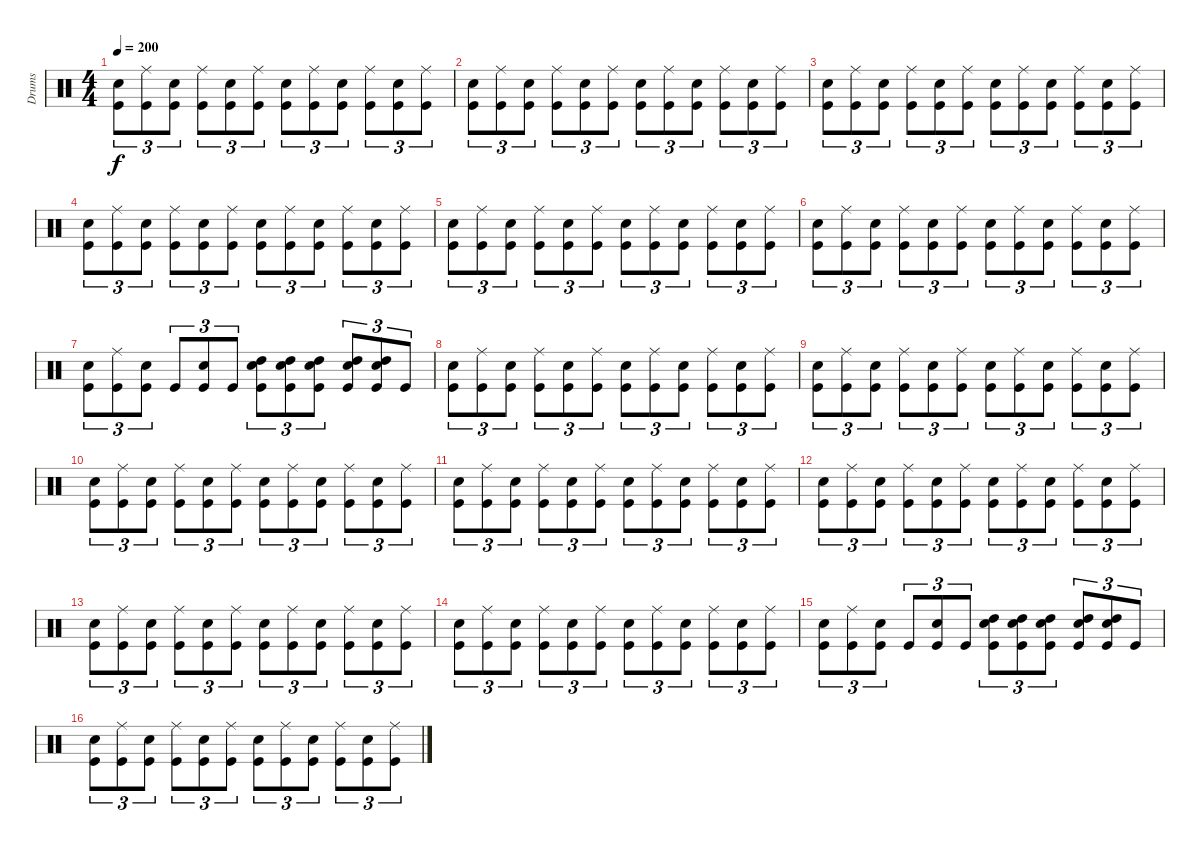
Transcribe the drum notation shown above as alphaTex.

\track ("Drums" "Drums") {instrument percussion}
\staff {score}
\articulation defaults
\ts (4 4)
\tempo 200
\clef neutral
\ks c
("Electric Snare (hit)" "Kick (hit)").8{tu (3 2) dy f} ("Ride (middle)" "Kick (hit)").8{tu (3 2)} ("Electric Snare (hit)" "Kick (hit)").8{tu (3 2)} ("Ride (middle)" "Kick (hit)").8{tu (3 2)} ("Electric Snare (hit)" "Kick (hit)").8{tu (3 2)} ("Ride (middle)" "Kick (hit)").8{tu (3 2)} ("Electric Snare (hit)" "Kick (hit)").8{tu (3 2)} ("Ride (middle)" "Kick (hit)").8{tu (3 2)} ("Electric Snare (hit)" "Kick (hit)").8{tu (3 2)} ("Ride (middle)" "Kick (hit)").8{tu (3 2)} ("Electric Snare (hit)" "Kick (hit)").8{tu (3 2)} ("Ride (middle)" "Kick (hit)").8{tu (3 2)} |
("Electric Snare (hit)" "Kick (hit)").8{tu (3 2)} ("Ride (middle)" "Kick (hit)").8{tu (3 2)} ("Electric Snare (hit)" "Kick (hit)").8{tu (3 2)} ("Ride (middle)" "Kick (hit)").8{tu (3 2)} ("Electric Snare (hit)" "Kick (hit)").8{tu (3 2)} ("Ride (middle)" "Kick (hit)").8{tu (3 2)} ("Electric Snare (hit)" "Kick (hit)").8{tu (3 2)} ("Ride (middle)" "Kick (hit)").8{tu (3 2)} ("Electric Snare (hit)" "Kick (hit)").8{tu (3 2)} ("Ride (middle)" "Kick (hit)").8{tu (3 2)} ("Electric Snare (hit)" "Kick (hit)").8{tu (3 2)} ("Ride (middle)" "Kick (hit)").8{tu (3 2)} |
("Electric Snare (hit)" "Kick (hit)").8{tu (3 2)} ("Ride (middle)" "Kick (hit)").8{tu (3 2)} ("Electric Snare (hit)" "Kick (hit)").8{tu (3 2)} ("Ride (middle)" "Kick (hit)").8{tu (3 2)} ("Electric Snare (hit)" "Kick (hit)").8{tu (3 2)} ("Ride (middle)" "Kick (hit)").8{tu (3 2)} ("Electric Snare (hit)" "Kick (hit)").8{tu (3 2)} ("Ride (middle)" "Kick (hit)").8{tu (3 2)} ("Electric Snare (hit)" "Kick (hit)").8{tu (3 2)} ("Ride (middle)" "Kick (hit)").8{tu (3 2)} ("Electric Snare (hit)" "Kick (hit)").8{tu (3 2)} ("Ride (middle)" "Kick (hit)").8{tu (3 2)} |
("Electric Snare (hit)" "Kick (hit)").8{tu (3 2)} ("Ride (middle)" "Kick (hit)").8{tu (3 2)} ("Electric Snare (hit)" "Kick (hit)").8{tu (3 2)} ("Ride (middle)" "Kick (hit)").8{tu (3 2)} ("Electric Snare (hit)" "Kick (hit)").8{tu (3 2)} ("Ride (middle)" "Kick (hit)").8{tu (3 2)} ("Electric Snare (hit)" "Kick (hit)").8{tu (3 2)} ("Ride (middle)" "Kick (hit)").8{tu (3 2)} ("Electric Snare (hit)" "Kick (hit)").8{tu (3 2)} ("Ride (middle)" "Kick (hit)").8{tu (3 2)} ("Electric Snare (hit)" "Kick (hit)").8{tu (3 2)} ("Ride (middle)" "Kick (hit)").8{tu (3 2)} |
("Electric Snare (hit)" "Kick (hit)").8{tu (3 2)} ("Ride (middle)" "Kick (hit)").8{tu (3 2)} ("Electric Snare (hit)" "Kick (hit)").8{tu (3 2)} ("Ride (middle)" "Kick (hit)").8{tu (3 2)} ("Electric Snare (hit)" "Kick (hit)").8{tu (3 2)} ("Ride (middle)" "Kick (hit)").8{tu (3 2)} ("Electric Snare (hit)" "Kick (hit)").8{tu (3 2)} ("Ride (middle)" "Kick (hit)").8{tu (3 2)} ("Electric Snare (hit)" "Kick (hit)").8{tu (3 2)} ("Ride (middle)" "Kick (hit)").8{tu (3 2)} ("Electric Snare (hit)" "Kick (hit)").8{tu (3 2)} ("Ride (middle)" "Kick (hit)").8{tu (3 2)} |
("Electric Snare (hit)" "Kick (hit)").8{tu (3 2)} ("Ride (middle)" "Kick (hit)").8{tu (3 2)} ("Electric Snare (hit)" "Kick (hit)").8{tu (3 2)} ("Ride (middle)" "Kick (hit)").8{tu (3 2)} ("Electric Snare (hit)" "Kick (hit)").8{tu (3 2)} ("Ride (middle)" "Kick (hit)").8{tu (3 2)} ("Electric Snare (hit)" "Kick (hit)").8{tu (3 2)} ("Ride (middle)" "Kick (hit)").8{tu (3 2)} ("Electric Snare (hit)" "Kick (hit)").8{tu (3 2)} ("Ride (middle)" "Kick (hit)").8{tu (3 2)} ("Electric Snare (hit)" "Kick (hit)").8{tu (3 2)} ("Ride (middle)" "Kick (hit)").8{tu (3 2)} |
("Electric Snare (hit)" "Kick (hit)").8{tu (3 2)} ("Ride (middle)" "Kick (hit)").8{tu (3 2)} ("Electric Snare (hit)" "Kick (hit)").8{tu (3 2)} "Kick (hit)".8{tu (3 2)} ("Electric Snare (hit)" "Kick (hit)").8{tu (3 2)} "Kick (hit)".8{tu (3 2)} ("High Tom (hit)" "Electric Snare (hit)" "Kick (hit)").8{tu (3 2)} ("High Tom (hit)" "Electric Snare (hit)" "Kick (hit)").8{tu (3 2)} ("High Tom (hit)" "Electric Snare (hit)" "Kick (hit)").8{tu (3 2)} ("High Tom (hit)" "Electric Snare (hit)" "Kick (hit)").8{tu (3 2)} ("High Tom (hit)" "Electric Snare (hit)" "Kick (hit)").8{tu (3 2)} "Kick (hit)".8{tu (3 2)} |
("Electric Snare (hit)" "Kick (hit)").8{tu (3 2)} ("Ride (middle)" "Kick (hit)").8{tu (3 2)} ("Electric Snare (hit)" "Kick (hit)").8{tu (3 2)} ("Ride (middle)" "Kick (hit)").8{tu (3 2)} ("Electric Snare (hit)" "Kick (hit)").8{tu (3 2)} ("Ride (middle)" "Kick (hit)").8{tu (3 2)} ("Electric Snare (hit)" "Kick (hit)").8{tu (3 2)} ("Ride (middle)" "Kick (hit)").8{tu (3 2)} ("Electric Snare (hit)" "Kick (hit)").8{tu (3 2)} ("Ride (middle)" "Kick (hit)").8{tu (3 2)} ("Electric Snare (hit)" "Kick (hit)").8{tu (3 2)} ("Ride (middle)" "Kick (hit)").8{tu (3 2)} |
("Electric Snare (hit)" "Kick (hit)").8{tu (3 2)} ("Ride (middle)" "Kick (hit)").8{tu (3 2)} ("Electric Snare (hit)" "Kick (hit)").8{tu (3 2)} ("Ride (middle)" "Kick (hit)").8{tu (3 2)} ("Electric Snare (hit)" "Kick (hit)").8{tu (3 2)} ("Ride (middle)" "Kick (hit)").8{tu (3 2)} ("Electric Snare (hit)" "Kick (hit)").8{tu (3 2)} ("Ride (middle)" "Kick (hit)").8{tu (3 2)} ("Electric Snare (hit)" "Kick (hit)").8{tu (3 2)} ("Ride (middle)" "Kick (hit)").8{tu (3 2)} ("Electric Snare (hit)" "Kick (hit)").8{tu (3 2)} ("Ride (middle)" "Kick (hit)").8{tu (3 2)} |
("Electric Snare (hit)" "Kick (hit)").8{tu (3 2)} ("Ride (middle)" "Kick (hit)").8{tu (3 2)} ("Electric Snare (hit)" "Kick (hit)").8{tu (3 2)} ("Ride (middle)" "Kick (hit)").8{tu (3 2)} ("Electric Snare (hit)" "Kick (hit)").8{tu (3 2)} ("Ride (middle)" "Kick (hit)").8{tu (3 2)} ("Electric Snare (hit)" "Kick (hit)").8{tu (3 2)} ("Ride (middle)" "Kick (hit)").8{tu (3 2)} ("Electric Snare (hit)" "Kick (hit)").8{tu (3 2)} ("Ride (middle)" "Kick (hit)").8{tu (3 2)} ("Electric Snare (hit)" "Kick (hit)").8{tu (3 2)} ("Ride (middle)" "Kick (hit)").8{tu (3 2)} |
("Electric Snare (hit)" "Kick (hit)").8{tu (3 2)} ("Ride (middle)" "Kick (hit)").8{tu (3 2)} ("Electric Snare (hit)" "Kick (hit)").8{tu (3 2)} ("Ride (middle)" "Kick (hit)").8{tu (3 2)} ("Electric Snare (hit)" "Kick (hit)").8{tu (3 2)} ("Ride (middle)" "Kick (hit)").8{tu (3 2)} ("Electric Snare (hit)" "Kick (hit)").8{tu (3 2)} ("Ride (middle)" "Kick (hit)").8{tu (3 2)} ("Electric Snare (hit)" "Kick (hit)").8{tu (3 2)} ("Ride (middle)" "Kick (hit)").8{tu (3 2)} ("Electric Snare (hit)" "Kick (hit)").8{tu (3 2)} ("Ride (middle)" "Kick (hit)").8{tu (3 2)} |
("Electric Snare (hit)" "Kick (hit)").8{tu (3 2)} ("Ride (middle)" "Kick (hit)").8{tu (3 2)} ("Electric Snare (hit)" "Kick (hit)").8{tu (3 2)} ("Ride (middle)" "Kick (hit)").8{tu (3 2)} ("Electric Snare (hit)" "Kick (hit)").8{tu (3 2)} ("Ride (middle)" "Kick (hit)").8{tu (3 2)} ("Electric Snare (hit)" "Kick (hit)").8{tu (3 2)} ("Ride (middle)" "Kick (hit)").8{tu (3 2)} ("Electric Snare (hit)" "Kick (hit)").8{tu (3 2)} ("Ride (middle)" "Kick (hit)").8{tu (3 2)} ("Electric Snare (hit)" "Kick (hit)").8{tu (3 2)} ("Ride (middle)" "Kick (hit)").8{tu (3 2)} |
("Electric Snare (hit)" "Kick (hit)").8{tu (3 2)} ("Ride (middle)" "Kick (hit)").8{tu (3 2)} ("Electric Snare (hit)" "Kick (hit)").8{tu (3 2)} ("Ride (middle)" "Kick (hit)").8{tu (3 2)} ("Electric Snare (hit)" "Kick (hit)").8{tu (3 2)} ("Ride (middle)" "Kick (hit)").8{tu (3 2)} ("Electric Snare (hit)" "Kick (hit)").8{tu (3 2)} ("Ride (middle)" "Kick (hit)").8{tu (3 2)} ("Electric Snare (hit)" "Kick (hit)").8{tu (3 2)} ("Ride (middle)" "Kick (hit)").8{tu (3 2)} ("Electric Snare (hit)" "Kick (hit)").8{tu (3 2)} ("Ride (middle)" "Kick (hit)").8{tu (3 2)} |
("Electric Snare (hit)" "Kick (hit)").8{tu (3 2)} ("Ride (middle)" "Kick (hit)").8{tu (3 2)} ("Electric Snare (hit)" "Kick (hit)").8{tu (3 2)} ("Ride (middle)" "Kick (hit)").8{tu (3 2)} ("Electric Snare (hit)" "Kick (hit)").8{tu (3 2)} ("Ride (middle)" "Kick (hit)").8{tu (3 2)} ("Electric Snare (hit)" "Kick (hit)").8{tu (3 2)} ("Ride (middle)" "Kick (hit)").8{tu (3 2)} ("Electric Snare (hit)" "Kick (hit)").8{tu (3 2)} ("Ride (middle)" "Kick (hit)").8{tu (3 2)} ("Electric Snare (hit)" "Kick (hit)").8{tu (3 2)} ("Ride (middle)" "Kick (hit)").8{tu (3 2)} |
("Electric Snare (hit)" "Kick (hit)").8{tu (3 2)} ("Ride (middle)" "Kick (hit)").8{tu (3 2)} ("Electric Snare (hit)" "Kick (hit)").8{tu (3 2)} "Kick (hit)".8{tu (3 2)} ("Electric Snare (hit)" "Kick (hit)").8{tu (3 2)} "Kick (hit)".8{tu (3 2)} ("High Tom (hit)" "Electric Snare (hit)" "Kick (hit)").8{tu (3 2)} ("High Tom (hit)" "Electric Snare (hit)" "Kick (hit)").8{tu (3 2)} ("High Tom (hit)" "Electric Snare (hit)" "Kick (hit)").8{tu (3 2)} ("High Tom (hit)" "Electric Snare (hit)" "Kick (hit)").8{tu (3 2)} ("High Tom (hit)" "Electric Snare (hit)" "Kick (hit)").8{tu (3 2)} "Kick (hit)".8{tu (3 2)} |
("Electric Snare (hit)" "Kick (hit)").8{tu (3 2)} ("Ride (middle)" "Kick (hit)").8{tu (3 2)} ("Electric Snare (hit)" "Kick (hit)").8{tu (3 2)} ("Ride (middle)" "Kick (hit)").8{tu (3 2)} ("Electric Snare (hit)" "Kick (hit)").8{tu (3 2)} ("Ride (middle)" "Kick (hit)").8{tu (3 2)} ("Electric Snare (hit)" "Kick (hit)").8{tu (3 2)} ("Ride (middle)" "Kick (hit)").8{tu (3 2)} ("Electric Snare (hit)" "Kick (hit)").8{tu (3 2)} ("Ride (middle)" "Kick (hit)").8{tu (3 2)} ("Electric Snare (hit)" "Kick (hit)").8{tu (3 2)} ("Ride (middle)" "Kick (hit)").8{tu (3 2)}
